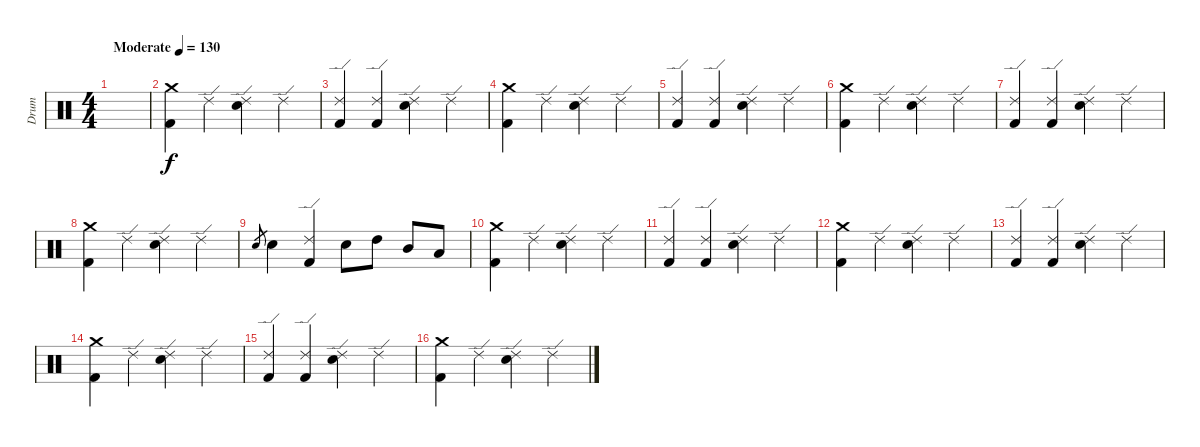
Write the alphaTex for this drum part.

\track ("Drum" "Drum") {instrument percussion}
\staff {score}
\articulation defaults
\ts (4 4)
\tempo (130 "Moderate")
\clef neutral
\ks c
|
("Crash medium (hit)" "Kick (hit) 2").4 "Ride (edge) 2".4 ("Ride (edge) 2" "Electric Snare (hit)").4 "Ride (edge) 2".4 |
("Ride (edge) 2" "Kick (hit) 2").4 ("Ride (edge) 2" "Kick (hit) 2").4 ("Ride (edge) 2" "Electric Snare (hit)").4 "Ride (edge) 2".4 |
("Crash medium (hit)" "Kick (hit) 2").4 "Ride (edge) 2".4 ("Ride (edge) 2" "Electric Snare (hit)").4 "Ride (edge) 2".4 |
("Ride (edge) 2" "Kick (hit) 2").4 ("Ride (edge) 2" "Kick (hit) 2").4 ("Ride (edge) 2" "Electric Snare (hit)").4 "Ride (edge) 2".4 |
("Crash medium (hit)" "Kick (hit) 2").4 "Ride (edge) 2".4 ("Ride (edge) 2" "Electric Snare (hit)").4 "Ride (edge) 2".4 |
("Ride (edge) 2" "Kick (hit) 2").4 ("Ride (edge) 2" "Kick (hit) 2").4 ("Ride (edge) 2" "Electric Snare (hit)").4 "Ride (edge) 2".4 |
("Crash medium (hit)" "Kick (hit) 2").4 "Ride (edge) 2".4 ("Ride (edge) 2" "Electric Snare (hit)").4 "Ride (edge) 2".4 |
"Electric Snare (hit)".8{gr} "Electric Snare (hit)".4 ("Ride (edge) 2" "Kick (hit) 2").4 "Electric Snare (hit)".8 "High Tom (hit)".8 "Mid Tom (hit)".8 "Low Tom (hit)".8 |
("Crash medium (hit)" "Kick (hit) 2").4 "Ride (edge) 2".4 ("Ride (edge) 2" "Electric Snare (hit)").4 "Ride (edge) 2".4 |
("Ride (edge) 2" "Kick (hit) 2").4 ("Ride (edge) 2" "Kick (hit) 2").4 ("Ride (edge) 2" "Electric Snare (hit)").4 "Ride (edge) 2".4 |
("Crash medium (hit)" "Kick (hit) 2").4 "Ride (edge) 2".4 ("Ride (edge) 2" "Electric Snare (hit)").4 "Ride (edge) 2".4 |
("Ride (edge) 2" "Kick (hit) 2").4 ("Ride (edge) 2" "Kick (hit) 2").4 ("Ride (edge) 2" "Electric Snare (hit)").4 "Ride (edge) 2".4 |
("Crash medium (hit)" "Kick (hit) 2").4 "Ride (edge) 2".4 ("Ride (edge) 2" "Electric Snare (hit)").4 "Ride (edge) 2".4 |
("Ride (edge) 2" "Kick (hit) 2").4 ("Ride (edge) 2" "Kick (hit) 2").4 ("Ride (edge) 2" "Electric Snare (hit)").4 "Ride (edge) 2".4 |
("Crash medium (hit)" "Kick (hit) 2").4 "Ride (edge) 2".4 ("Ride (edge) 2" "Electric Snare (hit)").4 "Ride (edge) 2".4
